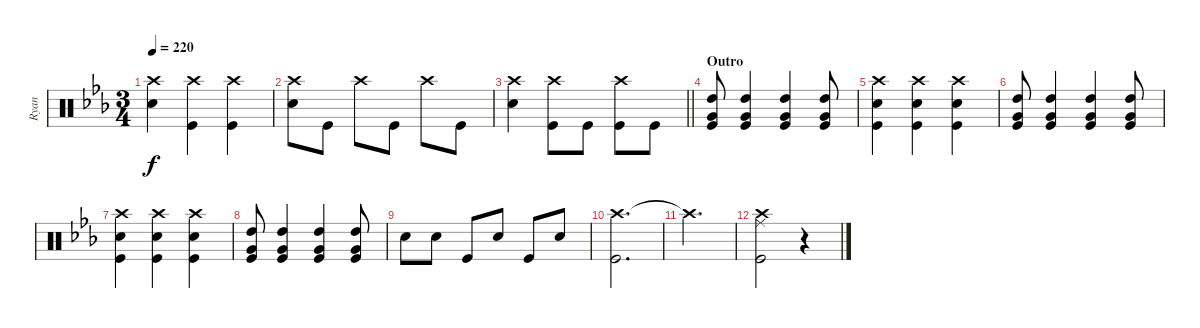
\track ("Ryan" "Ryan") {instrument percussion}
\staff {score}
\articulation defaults
\ts (3 4)
\tempo 220
\clef neutral
\ks cminor
("Crash high (hit)" "Snare (hit) 2").4{dy f} ("Kick (hit)" "Crash high (hit)").4 ("Crash high (hit)" "Kick (hit)").4 |
("Snare (hit) 2" "Crash high (hit)").8 "Kick (hit)".8 "Crash high (hit)".8 "Kick (hit)".8 "Crash high (hit)".8 "Kick (hit)".8 |
\barLineRight lightlight
("Crash high (hit)" "Snare (hit) 2").4 ("Kick (hit)" "Crash high (hit)").8 "Kick (hit)".8 ("Kick (hit)" "Crash high (hit)").8 "Kick (hit)".8 |
\section ("" "Outro")
("Kick (hit)" "Very Low Tom (hit)" "High Tom (hit)").8 ("High Tom (hit)" "Very Low Tom (hit)" "Kick (hit)").4 ("Very Low Tom (hit)" "Kick (hit)" "High Tom (hit)").4 ("Kick (hit)" "Very Low Tom (hit)" "High Tom (hit)").8 |
("Kick (hit)" "Snare (hit) 2" "Crash high (hit)").4 ("Kick (hit)" "Snare (hit) 2" "Crash high (hit)").4 ("Crash high (hit)" "Snare (hit) 2" "Kick (hit)").4 |
("Kick (hit)" "Very Low Tom (hit)" "High Tom (hit)").8 ("High Tom (hit)" "Very Low Tom (hit)" "Kick (hit)").4 ("Very Low Tom (hit)" "Kick (hit)" "High Tom (hit)").4 ("Kick (hit)" "Very Low Tom (hit)" "High Tom (hit)").8 |
("Kick (hit)" "Snare (hit) 2" "Crash high (hit)").4 ("Kick (hit)" "Snare (hit) 2" "Crash high (hit)").4 ("Crash high (hit)" "Snare (hit) 2" "Kick (hit)").4 |
("Kick (hit)" "Very Low Tom (hit)" "High Tom (hit)").8 ("High Tom (hit)" "Very Low Tom (hit)" "Kick (hit)").4 ("Very Low Tom (hit)" "Kick (hit)" "High Tom (hit)").4 ("Kick (hit)" "Very Low Tom (hit)" "High Tom (hit)").8 |
"Snare (hit) 2".8 "Snare (hit) 2".8 "Kick (hit)".8 "Snare (hit) 2".8 "Kick (hit)".8 "Snare (hit) 2".8 |
("Crash high (hit)" "Kick (hit)").2{d} |
"Crash high (hit)"{t}.2{d} |
("Kick (hit)" "Crash high (hit)" "Ride (middle)").2 r.4
